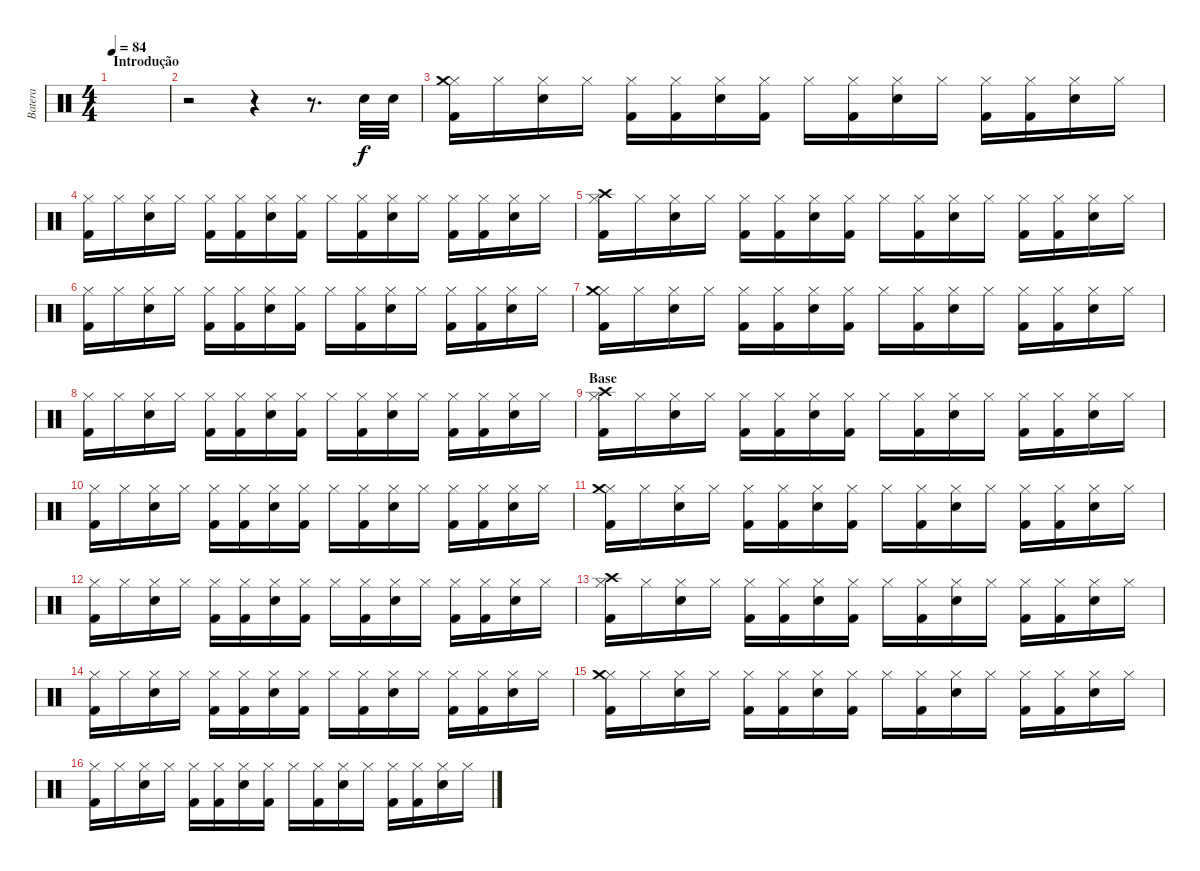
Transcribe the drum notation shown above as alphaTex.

\track ("Batera" "Batera") {instrument percussion}
\staff {score}
\articulation defaults
\ts (4 4)
\section ("" "Introdução")
\tempo 84
\clef neutral
\ks c
|
r.2 r.4 r.8{d} "Snare (hit) 2".32 "Snare (hit) 2".32 |
("Hi-Hat (closed)" "Crash medium (hit)" "Kick (hit) 2").16 "Hi-Hat (closed)".16 ("Hi-Hat (closed)" "Snare (hit) 2").16 "Hi-Hat (closed)".16 ("Hi-Hat (closed)" "Kick (hit) 2").16 ("Hi-Hat (closed)" "Kick (hit) 2").16 ("Hi-Hat (closed)" "Snare (hit) 2").16 ("Hi-Hat (closed)" "Kick (hit) 2").16 "Hi-Hat (closed)".16 ("Hi-Hat (closed)" "Kick (hit) 2").16 ("Hi-Hat (closed)" "Snare (hit) 2").16 "Hi-Hat (closed)".16 ("Hi-Hat (closed)" "Kick (hit) 2").16 ("Hi-Hat (closed)" "Kick (hit) 2").16 ("Hi-Hat (closed)" "Snare (hit) 2").16 "Hi-Hat (closed)".16 |
("Hi-Hat (closed)" "Kick (hit) 2").16 "Hi-Hat (closed)".16 ("Hi-Hat (closed)" "Snare (hit) 2").16 "Hi-Hat (closed)".16 ("Hi-Hat (closed)" "Kick (hit) 2").16 ("Hi-Hat (closed)" "Kick (hit) 2").16 ("Hi-Hat (closed)" "Snare (hit) 2").16 ("Hi-Hat (closed)" "Kick (hit) 2").16 "Hi-Hat (closed)".16 ("Hi-Hat (closed)" "Kick (hit) 2").16 ("Hi-Hat (closed)" "Snare (hit) 2").16 "Hi-Hat (closed)".16 ("Hi-Hat (closed)" "Kick (hit) 2").16 ("Hi-Hat (closed)" "Kick (hit) 2").16 ("Hi-Hat (closed)" "Snare (hit) 2").16 "Hi-Hat (closed)".16 |
("Hi-Hat (closed)" "Crash high (hit)" "Kick (hit) 2").16 "Hi-Hat (closed)".16 ("Hi-Hat (closed)" "Snare (hit) 2").16 "Hi-Hat (closed)".16 ("Hi-Hat (closed)" "Kick (hit) 2").16 ("Hi-Hat (closed)" "Kick (hit) 2").16 ("Hi-Hat (closed)" "Snare (hit) 2").16 ("Hi-Hat (closed)" "Kick (hit) 2").16 "Hi-Hat (closed)".16 ("Hi-Hat (closed)" "Kick (hit) 2").16 ("Hi-Hat (closed)" "Snare (hit) 2").16 "Hi-Hat (closed)".16 ("Hi-Hat (closed)" "Kick (hit) 2").16 ("Hi-Hat (closed)" "Kick (hit) 2").16 ("Hi-Hat (closed)" "Snare (hit) 2").16 "Hi-Hat (closed)".16 |
("Hi-Hat (closed)" "Kick (hit) 2").16 "Hi-Hat (closed)".16 ("Hi-Hat (closed)" "Snare (hit) 2").16 "Hi-Hat (closed)".16 ("Hi-Hat (closed)" "Kick (hit) 2").16 ("Hi-Hat (closed)" "Kick (hit) 2").16 ("Hi-Hat (closed)" "Snare (hit) 2").16 ("Hi-Hat (closed)" "Kick (hit) 2").16 "Hi-Hat (closed)".16 ("Hi-Hat (closed)" "Kick (hit) 2").16 ("Hi-Hat (closed)" "Snare (hit) 2").16 "Hi-Hat (closed)".16 ("Hi-Hat (closed)" "Kick (hit) 2").16 ("Hi-Hat (closed)" "Kick (hit) 2").16 ("Hi-Hat (closed)" "Snare (hit) 2").16 "Hi-Hat (closed)".16 |
("Hi-Hat (closed)" "Crash medium (hit)" "Kick (hit) 2").16 "Hi-Hat (closed)".16 ("Hi-Hat (closed)" "Snare (hit) 2").16 "Hi-Hat (closed)".16 ("Hi-Hat (closed)" "Kick (hit) 2").16 ("Hi-Hat (closed)" "Kick (hit) 2").16 ("Hi-Hat (closed)" "Snare (hit) 2").16 ("Hi-Hat (closed)" "Kick (hit) 2").16 "Hi-Hat (closed)".16 ("Hi-Hat (closed)" "Kick (hit) 2").16 ("Hi-Hat (closed)" "Snare (hit) 2").16 "Hi-Hat (closed)".16 ("Hi-Hat (closed)" "Kick (hit) 2").16 ("Hi-Hat (closed)" "Kick (hit) 2").16 ("Hi-Hat (closed)" "Snare (hit) 2").16 "Hi-Hat (closed)".16 |
("Hi-Hat (closed)" "Kick (hit) 2").16 "Hi-Hat (closed)".16 ("Hi-Hat (closed)" "Snare (hit) 2").16 "Hi-Hat (closed)".16 ("Hi-Hat (closed)" "Kick (hit) 2").16 ("Hi-Hat (closed)" "Kick (hit) 2").16 ("Hi-Hat (closed)" "Snare (hit) 2").16 ("Hi-Hat (closed)" "Kick (hit) 2").16 "Hi-Hat (closed)".16 ("Hi-Hat (closed)" "Kick (hit) 2").16 ("Hi-Hat (closed)" "Snare (hit) 2").16 "Hi-Hat (closed)".16 ("Hi-Hat (closed)" "Kick (hit) 2").16 ("Hi-Hat (closed)" "Kick (hit) 2").16 ("Hi-Hat (closed)" "Snare (hit) 2").16 "Hi-Hat (closed)".16 |
\section ("" "Base")
("Hi-Hat (closed)" "Crash high (hit)" "Kick (hit) 2").16 "Hi-Hat (closed)".16 ("Hi-Hat (closed)" "Snare (hit) 2").16 "Hi-Hat (closed)".16 ("Hi-Hat (closed)" "Kick (hit) 2").16 ("Hi-Hat (closed)" "Kick (hit) 2").16 ("Hi-Hat (closed)" "Snare (hit) 2").16 ("Hi-Hat (closed)" "Kick (hit) 2").16 "Hi-Hat (closed)".16 ("Hi-Hat (closed)" "Kick (hit) 2").16 ("Hi-Hat (closed)" "Snare (hit) 2").16 "Hi-Hat (closed)".16 ("Hi-Hat (closed)" "Kick (hit) 2").16 ("Hi-Hat (closed)" "Kick (hit) 2").16 ("Hi-Hat (closed)" "Snare (hit) 2").16 "Hi-Hat (closed)".16 |
("Hi-Hat (closed)" "Kick (hit) 2").16 "Hi-Hat (closed)".16 ("Hi-Hat (closed)" "Snare (hit) 2").16 "Hi-Hat (closed)".16 ("Hi-Hat (closed)" "Kick (hit) 2").16 ("Hi-Hat (closed)" "Kick (hit) 2").16 ("Hi-Hat (closed)" "Snare (hit) 2").16 ("Hi-Hat (closed)" "Kick (hit) 2").16 "Hi-Hat (closed)".16 ("Hi-Hat (closed)" "Kick (hit) 2").16 ("Hi-Hat (closed)" "Snare (hit) 2").16 "Hi-Hat (closed)".16 ("Hi-Hat (closed)" "Kick (hit) 2").16 ("Hi-Hat (closed)" "Kick (hit) 2").16 ("Hi-Hat (closed)" "Snare (hit) 2").16 "Hi-Hat (closed)".16 |
("Hi-Hat (closed)" "Crash medium (hit)" "Kick (hit) 2").16 "Hi-Hat (closed)".16 ("Hi-Hat (closed)" "Snare (hit) 2").16 "Hi-Hat (closed)".16 ("Hi-Hat (closed)" "Kick (hit) 2").16 ("Hi-Hat (closed)" "Kick (hit) 2").16 ("Hi-Hat (closed)" "Snare (hit) 2").16 ("Hi-Hat (closed)" "Kick (hit) 2").16 "Hi-Hat (closed)".16 ("Hi-Hat (closed)" "Kick (hit) 2").16 ("Hi-Hat (closed)" "Snare (hit) 2").16 "Hi-Hat (closed)".16 ("Hi-Hat (closed)" "Kick (hit) 2").16 ("Hi-Hat (closed)" "Kick (hit) 2").16 ("Hi-Hat (closed)" "Snare (hit) 2").16 "Hi-Hat (closed)".16 |
("Hi-Hat (closed)" "Kick (hit) 2").16 "Hi-Hat (closed)".16 ("Hi-Hat (closed)" "Snare (hit) 2").16 "Hi-Hat (closed)".16 ("Hi-Hat (closed)" "Kick (hit) 2").16 ("Hi-Hat (closed)" "Kick (hit) 2").16 ("Hi-Hat (closed)" "Snare (hit) 2").16 ("Hi-Hat (closed)" "Kick (hit) 2").16 "Hi-Hat (closed)".16 ("Hi-Hat (closed)" "Kick (hit) 2").16 ("Hi-Hat (closed)" "Snare (hit) 2").16 "Hi-Hat (closed)".16 ("Hi-Hat (closed)" "Kick (hit) 2").16 ("Hi-Hat (closed)" "Kick (hit) 2").16 ("Hi-Hat (closed)" "Snare (hit) 2").16 "Hi-Hat (closed)".16 |
("Hi-Hat (closed)" "Crash high (hit)" "Kick (hit) 2").16 "Hi-Hat (closed)".16 ("Hi-Hat (closed)" "Snare (hit) 2").16 "Hi-Hat (closed)".16 ("Hi-Hat (closed)" "Kick (hit) 2").16 ("Hi-Hat (closed)" "Kick (hit) 2").16 ("Hi-Hat (closed)" "Snare (hit) 2").16 ("Hi-Hat (closed)" "Kick (hit) 2").16 "Hi-Hat (closed)".16 ("Hi-Hat (closed)" "Kick (hit) 2").16 ("Hi-Hat (closed)" "Snare (hit) 2").16 "Hi-Hat (closed)".16 ("Hi-Hat (closed)" "Kick (hit) 2").16 ("Hi-Hat (closed)" "Kick (hit) 2").16 ("Hi-Hat (closed)" "Snare (hit) 2").16 "Hi-Hat (closed)".16 |
("Hi-Hat (closed)" "Kick (hit) 2").16 "Hi-Hat (closed)".16 ("Hi-Hat (closed)" "Snare (hit) 2").16 "Hi-Hat (closed)".16 ("Hi-Hat (closed)" "Kick (hit) 2").16 ("Hi-Hat (closed)" "Kick (hit) 2").16 ("Hi-Hat (closed)" "Snare (hit) 2").16 ("Hi-Hat (closed)" "Kick (hit) 2").16 "Hi-Hat (closed)".16 ("Hi-Hat (closed)" "Kick (hit) 2").16 ("Hi-Hat (closed)" "Snare (hit) 2").16 "Hi-Hat (closed)".16 ("Hi-Hat (closed)" "Kick (hit) 2").16 ("Hi-Hat (closed)" "Kick (hit) 2").16 ("Hi-Hat (closed)" "Snare (hit) 2").16 "Hi-Hat (closed)".16 |
("Hi-Hat (closed)" "Crash medium (hit)" "Kick (hit) 2").16 "Hi-Hat (closed)".16 ("Hi-Hat (closed)" "Snare (hit) 2").16 "Hi-Hat (closed)".16 ("Hi-Hat (closed)" "Kick (hit) 2").16 ("Hi-Hat (closed)" "Kick (hit) 2").16 ("Hi-Hat (closed)" "Snare (hit) 2").16 ("Hi-Hat (closed)" "Kick (hit) 2").16 "Hi-Hat (closed)".16 ("Hi-Hat (closed)" "Kick (hit) 2").16 ("Hi-Hat (closed)" "Snare (hit) 2").16 "Hi-Hat (closed)".16 ("Hi-Hat (closed)" "Kick (hit) 2").16 ("Hi-Hat (closed)" "Kick (hit) 2").16 ("Hi-Hat (closed)" "Snare (hit) 2").16 "Hi-Hat (closed)".16 |
("Hi-Hat (closed)" "Kick (hit) 2").16 "Hi-Hat (closed)".16 ("Hi-Hat (closed)" "Snare (hit) 2").16 "Hi-Hat (closed)".16 ("Hi-Hat (closed)" "Kick (hit) 2").16 ("Hi-Hat (closed)" "Kick (hit) 2").16 ("Hi-Hat (closed)" "Snare (hit) 2").16 ("Hi-Hat (closed)" "Kick (hit) 2").16 "Hi-Hat (closed)".16 ("Hi-Hat (closed)" "Kick (hit) 2").16 ("Hi-Hat (closed)" "Snare (hit) 2").16 "Hi-Hat (closed)".16 ("Hi-Hat (closed)" "Kick (hit) 2").16 ("Hi-Hat (closed)" "Kick (hit) 2").16 ("Hi-Hat (closed)" "Snare (hit) 2").16 "Hi-Hat (closed)".16
